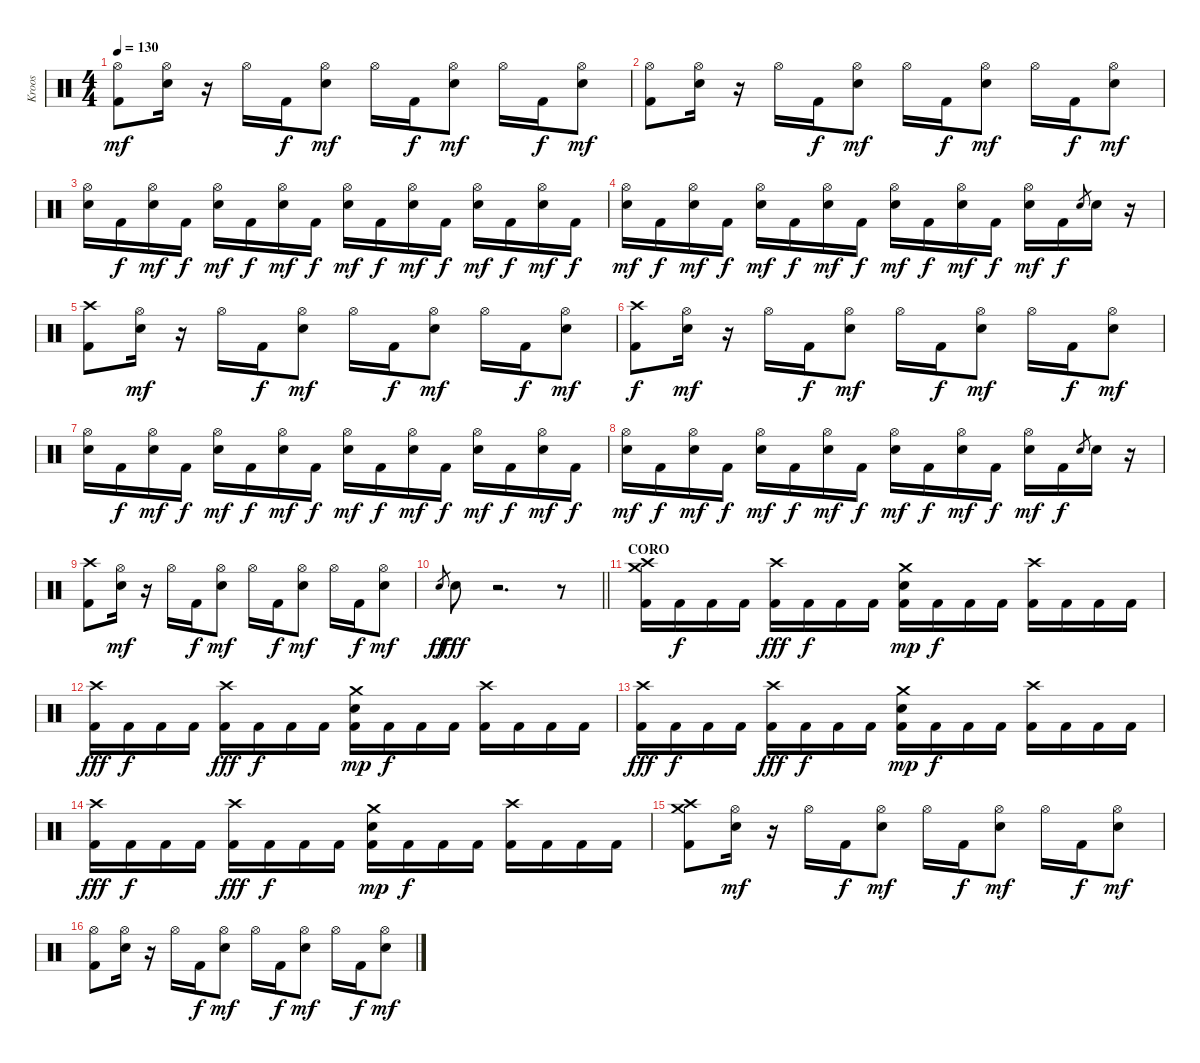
\track ("Kroos" "Kroos") {instrument percussion}
\staff {score}
\articulation defaults
\ts (4 4)
\tempo 130
\clef neutral
\ks c
("Hi-Hat (open)" "Kick (hit) 2").8{dy mf} ("Hi-Hat (open)" "Electric Snare (hit)").16 r.16 "Hi-Hat (open)".16 "Kick (hit) 2".16{dy f} ("Hi-Hat (open)" "Electric Snare (hit)").8{dy mf} "Hi-Hat (open)".16 "Kick (hit) 2".16{dy f} ("Hi-Hat (open)" "Electric Snare (hit)").8{dy mf} "Hi-Hat (open)".16 "Kick (hit) 2".16{dy f} ("Hi-Hat (open)" "Electric Snare (hit)").8{dy mf} |
("Hi-Hat (open)" "Kick (hit) 2").8 ("Hi-Hat (open)" "Electric Snare (hit)").16 r.16 "Hi-Hat (open)".16 "Kick (hit) 2".16{dy f} ("Hi-Hat (open)" "Electric Snare (hit)").8{dy mf} "Hi-Hat (open)".16 "Kick (hit) 2".16{dy f} ("Hi-Hat (open)" "Electric Snare (hit)").8{dy mf} "Hi-Hat (open)".16 "Kick (hit) 2".16{dy f} ("Hi-Hat (open)" "Electric Snare (hit)").8{dy mf} |
("Hi-Hat (open)" "Electric Snare (hit)").16 "Kick (hit) 2".16{dy f} ("Hi-Hat (open)" "Electric Snare (hit)").16{dy mf} "Kick (hit) 2".16{dy f} ("Hi-Hat (open)" "Electric Snare (hit)").16{dy mf} "Kick (hit) 2".16{dy f} ("Hi-Hat (open)" "Electric Snare (hit)").16{dy mf} "Kick (hit) 2".16{dy f} ("Hi-Hat (open)" "Electric Snare (hit)").16{dy mf} "Kick (hit) 2".16{dy f} ("Hi-Hat (open)" "Electric Snare (hit)").16{dy mf} "Kick (hit) 2".16{dy f} ("Hi-Hat (open)" "Electric Snare (hit)").16{dy mf} "Kick (hit) 2".16{dy f} ("Hi-Hat (open)" "Electric Snare (hit)").16{dy mf} "Kick (hit) 2".16{dy f} |
("Hi-Hat (open)" "Electric Snare (hit)").16{dy mf} "Kick (hit) 2".16{dy f} ("Hi-Hat (open)" "Electric Snare (hit)").16{dy mf} "Kick (hit) 2".16{dy f} ("Hi-Hat (open)" "Electric Snare (hit)").16{dy mf} "Kick (hit) 2".16{dy f} ("Hi-Hat (open)" "Electric Snare (hit)").16{dy mf} "Kick (hit) 2".16{dy f} ("Hi-Hat (open)" "Electric Snare (hit)").16{dy mf} "Kick (hit) 2".16{dy f} ("Hi-Hat (open)" "Electric Snare (hit)").16{dy mf} "Kick (hit) 2".16{dy f} ("Hi-Hat (open)" "Electric Snare (hit)").16{dy mf} "Kick (hit) 2".16{dy f} "Electric Snare (hit)".8{gr} "Electric Snare (hit)".16 r.16 |
("Crash high (hit)" "Kick (hit) 2").8 ("Hi-Hat (open)" "Electric Snare (hit)").16{dy mf} r.16 "Hi-Hat (open)".16 "Kick (hit) 2".16{dy f} ("Hi-Hat (open)" "Electric Snare (hit)").8{dy mf} "Hi-Hat (open)".16 "Kick (hit) 2".16{dy f} ("Hi-Hat (open)" "Electric Snare (hit)").8{dy mf} "Hi-Hat (open)".16 "Kick (hit) 2".16{dy f} ("Hi-Hat (open)" "Electric Snare (hit)").8{dy mf} |
("Crash high (hit)" "Kick (hit) 2").8{dy f} ("Hi-Hat (open)" "Electric Snare (hit)").16{dy mf} r.16 "Hi-Hat (open)".16 "Kick (hit) 2".16{dy f} ("Hi-Hat (open)" "Electric Snare (hit)").8{dy mf} "Hi-Hat (open)".16 "Kick (hit) 2".16{dy f} ("Hi-Hat (open)" "Electric Snare (hit)").8{dy mf} "Hi-Hat (open)".16 "Kick (hit) 2".16{dy f} ("Hi-Hat (open)" "Electric Snare (hit)").8{dy mf} |
("Hi-Hat (open)" "Electric Snare (hit)").16 "Kick (hit) 2".16{dy f} ("Hi-Hat (open)" "Electric Snare (hit)").16{dy mf} "Kick (hit) 2".16{dy f} ("Hi-Hat (open)" "Electric Snare (hit)").16{dy mf} "Kick (hit) 2".16{dy f} ("Hi-Hat (open)" "Electric Snare (hit)").16{dy mf} "Kick (hit) 2".16{dy f} ("Hi-Hat (open)" "Electric Snare (hit)").16{dy mf} "Kick (hit) 2".16{dy f} ("Hi-Hat (open)" "Electric Snare (hit)").16{dy mf} "Kick (hit) 2".16{dy f} ("Hi-Hat (open)" "Electric Snare (hit)").16{dy mf} "Kick (hit) 2".16{dy f} ("Hi-Hat (open)" "Electric Snare (hit)").16{dy mf} "Kick (hit) 2".16{dy f} |
("Hi-Hat (open)" "Electric Snare (hit)").16{dy mf} "Kick (hit) 2".16{dy f} ("Hi-Hat (open)" "Electric Snare (hit)").16{dy mf} "Kick (hit) 2".16{dy f} ("Hi-Hat (open)" "Electric Snare (hit)").16{dy mf} "Kick (hit) 2".16{dy f} ("Hi-Hat (open)" "Electric Snare (hit)").16{dy mf} "Kick (hit) 2".16{dy f} ("Hi-Hat (open)" "Electric Snare (hit)").16{dy mf} "Kick (hit) 2".16{dy f} ("Hi-Hat (open)" "Electric Snare (hit)").16{dy mf} "Kick (hit) 2".16{dy f} ("Hi-Hat (open)" "Electric Snare (hit)").16{dy mf} "Kick (hit) 2".16{dy f} "Electric Snare (hit)".8{gr} "Electric Snare (hit)".16 r.16 |
("Crash high (hit)" "Kick (hit) 2").8 ("Hi-Hat (open)" "Electric Snare (hit)").16{dy mf} r.16 "Hi-Hat (open)".16 "Kick (hit) 2".16{dy f} ("Hi-Hat (open)" "Electric Snare (hit)").8{dy mf} "Hi-Hat (open)".16 "Kick (hit) 2".16{dy f} ("Hi-Hat (open)" "Electric Snare (hit)").8{dy mf} "Hi-Hat (open)".16 "Kick (hit) 2".16{dy f} ("Hi-Hat (open)" "Electric Snare (hit)").8{dy mf} |
\barLineRight lightlight "Electric Snare (hit)".8{gr dy ff} "Electric Snare (hit)".8{dy fff}
r.2{d} r.8 |
\section ("" "CORO")
("Crash high (hit)" "Crash medium (hit)" "Kick (hit) 2").16 "Kick (hit) 2".16{dy f} "Kick (hit) 2".16 "Kick (hit) 2".16 ("Crash high (hit)" "Kick (hit) 2").16{dy fff} "Kick (hit) 2".16{dy f} "Kick (hit) 2".16 "Kick (hit) 2".16 ("Crash medium (hit)" "Electric Snare (hit)" "Kick (hit) 2").16{dy mp} "Kick (hit) 2".16{dy f} "Kick (hit) 2".16 "Kick (hit) 2".16 ("Crash high (hit)" "Kick (hit) 2").16 "Kick (hit) 2".16 "Kick (hit) 2".16 "Kick (hit) 2".16 |
("Crash high (hit)" "Kick (hit) 2").16{dy fff} "Kick (hit) 2".16{dy f} "Kick (hit) 2".16 "Kick (hit) 2".16 ("Crash high (hit)" "Kick (hit) 2").16{dy fff} "Kick (hit) 2".16{dy f} "Kick (hit) 2".16 "Kick (hit) 2".16 ("Crash medium (hit)" "Electric Snare (hit)" "Kick (hit) 2").16{dy mp} "Kick (hit) 2".16{dy f} "Kick (hit) 2".16 "Kick (hit) 2".16 ("Crash high (hit)" "Kick (hit) 2").16 "Kick (hit) 2".16 "Kick (hit) 2".16 "Kick (hit) 2".16 |
("Crash high (hit)" "Kick (hit) 2").16{dy fff} "Kick (hit) 2".16{dy f} "Kick (hit) 2".16 "Kick (hit) 2".16 ("Crash high (hit)" "Kick (hit) 2").16{dy fff} "Kick (hit) 2".16{dy f} "Kick (hit) 2".16 "Kick (hit) 2".16 ("Crash medium (hit)" "Electric Snare (hit)" "Kick (hit) 2").16{dy mp} "Kick (hit) 2".16{dy f} "Kick (hit) 2".16 "Kick (hit) 2".16 ("Crash high (hit)" "Kick (hit) 2").16 "Kick (hit) 2".16 "Kick (hit) 2".16 "Kick (hit) 2".16 |
("Crash high (hit)" "Kick (hit) 2").16{dy fff} "Kick (hit) 2".16{dy f} "Kick (hit) 2".16 "Kick (hit) 2".16 ("Crash high (hit)" "Kick (hit) 2").16{dy fff} "Kick (hit) 2".16{dy f} "Kick (hit) 2".16 "Kick (hit) 2".16 ("Crash medium (hit)" "Electric Snare (hit)" "Kick (hit) 2").16{dy mp} "Kick (hit) 2".16{dy f} "Kick (hit) 2".16 "Kick (hit) 2".16 ("Crash high (hit)" "Kick (hit) 2").16 "Kick (hit) 2".16 "Kick (hit) 2".16 "Kick (hit) 2".16 |
("Crash high (hit)" "Crash medium (hit)" "Kick (hit) 2").8 ("Hi-Hat (open)" "Electric Snare (hit)").16{dy mf} r.16 "Hi-Hat (open)".16 "Kick (hit) 2".16{dy f} ("Hi-Hat (open)" "Electric Snare (hit)").8{dy mf} "Hi-Hat (open)".16 "Kick (hit) 2".16{dy f} ("Hi-Hat (open)" "Electric Snare (hit)").8{dy mf} "Hi-Hat (open)".16 "Kick (hit) 2".16{dy f} ("Hi-Hat (open)" "Electric Snare (hit)").8{dy mf} |
("Hi-Hat (open)" "Kick (hit) 2").8 ("Hi-Hat (open)" "Electric Snare (hit)").16 r.16 "Hi-Hat (open)".16 "Kick (hit) 2".16{dy f} ("Hi-Hat (open)" "Electric Snare (hit)").8{dy mf} "Hi-Hat (open)".16 "Kick (hit) 2".16{dy f} ("Hi-Hat (open)" "Electric Snare (hit)").8{dy mf} "Hi-Hat (open)".16 "Kick (hit) 2".16{dy f} ("Hi-Hat (open)" "Electric Snare (hit)").8{dy mf}
